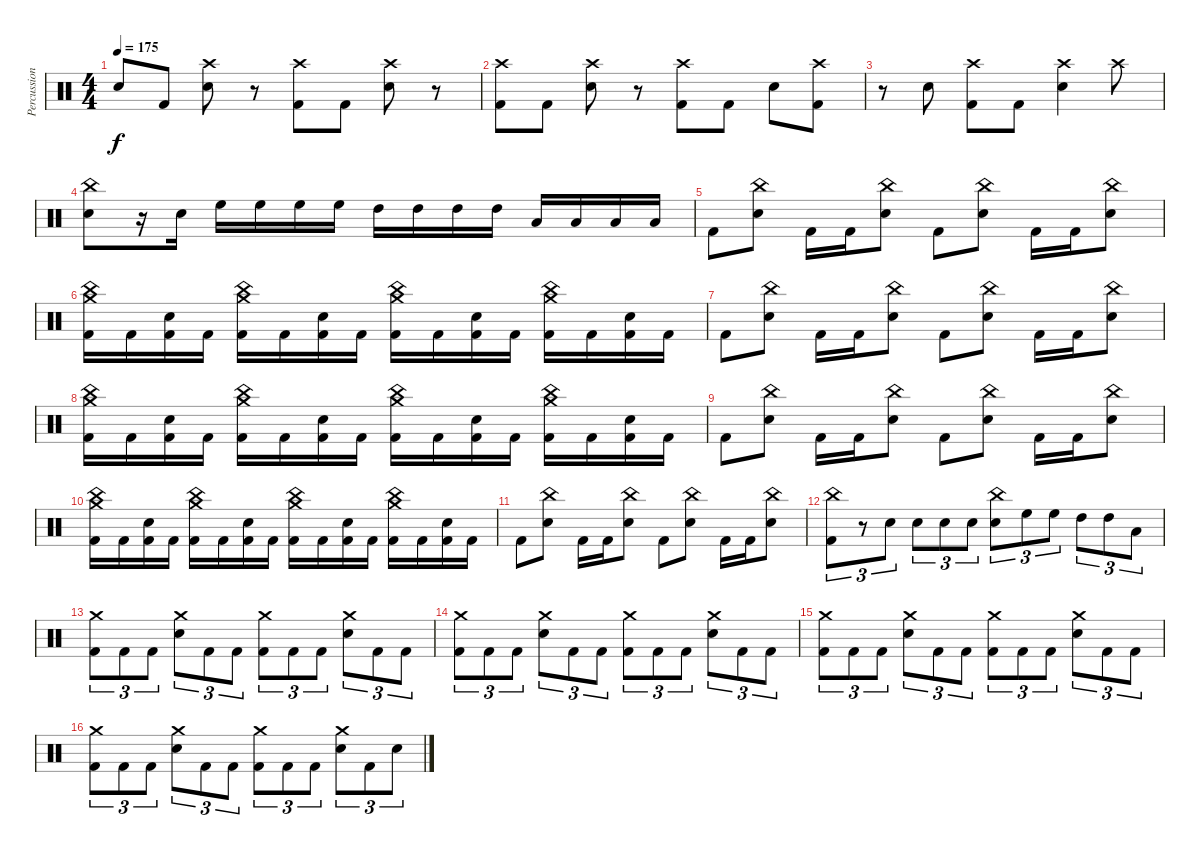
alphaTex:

\track ("Percussion" "Percussion") {instrument percussion}
\staff {score}
\articulation defaults
\ts (4 4)
\tempo 175
\clef neutral
\ks c "Snare (hit)"{t}.8{dy f} "Kick (hit) 2".8
("Crash high (hit)" "Electric Snare (hit)").8 r.8 ("Crash high (hit)" "Kick (hit) 2").8 "Kick (hit) 2".8 ("Crash high (hit)" "Electric Snare (hit)").8 r.8 |
("Crash high (hit)" "Kick (hit) 2").8 "Kick (hit) 2".8 ("Crash high (hit)" "Electric Snare (hit)").8 r.8 ("Crash high (hit)" "Kick (hit) 2").8 "Kick (hit) 2".8 "Electric Snare (hit)".8 ("Crash high (hit)" "Kick (hit) 2").8 |
r.8 "Electric Snare (hit)".8 ("Crash high (hit)" "Kick (hit) 2").8 "Kick (hit) 2".8 ("Crash high (hit)" "Electric Snare (hit)").4 "Crash high (hit)".8 |
("China (hit)" "Electric Snare (hit)").8 r.16 "Electric Snare (hit)".16 "High Floor Tom (hit)".16 "High Floor Tom (hit)".16 "High Floor Tom (hit)".16 "High Floor Tom (hit)".16 "High Tom (hit)".16 "High Tom (hit)".16 "High Tom (hit)".16 "High Tom (hit)".16 "Low Floor Tom (hit)".16 "Low Floor Tom (hit)".16 "Low Floor Tom (hit)".16 "Low Floor Tom (hit)".16 |
"Kick (hit) 2".8 ("China (hit)" "Electric Snare (hit)").8 "Kick (hit) 2".16 "Kick (hit) 2".16 ("China (hit)" "Electric Snare (hit)").8 "Kick (hit) 2".8 ("China (hit)" "Electric Snare (hit)").8 "Kick (hit) 2".16 "Kick (hit) 2".16 ("China (hit)" "Electric Snare (hit)").8 |
("Crash medium (hit)" "China (hit)" "Kick (hit) 2").16 "Kick (hit) 2".16 ("Electric Snare (hit)" "Kick (hit) 2").16 "Kick (hit) 2".16 ("Crash medium (hit)" "China (hit)" "Kick (hit) 2").16 "Kick (hit) 2".16 ("Electric Snare (hit)" "Kick (hit) 2").16 "Kick (hit) 2".16 ("Crash medium (hit)" "China (hit)" "Kick (hit) 2").16 "Kick (hit) 2".16 ("Electric Snare (hit)" "Kick (hit) 2").16 "Kick (hit) 2".16 ("Crash medium (hit)" "China (hit)" "Kick (hit) 2").16 "Kick (hit) 2".16 ("Electric Snare (hit)" "Kick (hit) 2").16 "Kick (hit) 2".16 |
"Kick (hit) 2".8 ("China (hit)" "Electric Snare (hit)").8 "Kick (hit) 2".16 "Kick (hit) 2".16 ("China (hit)" "Electric Snare (hit)").8 "Kick (hit) 2".8 ("China (hit)" "Electric Snare (hit)").8 "Kick (hit) 2".16 "Kick (hit) 2".16 ("China (hit)" "Electric Snare (hit)").8 |
("Crash medium (hit)" "China (hit)" "Kick (hit) 2").16 "Kick (hit) 2".16 ("Electric Snare (hit)" "Kick (hit) 2").16 "Kick (hit) 2".16 ("Crash medium (hit)" "China (hit)" "Kick (hit) 2").16 "Kick (hit) 2".16 ("Electric Snare (hit)" "Kick (hit) 2").16 "Kick (hit) 2".16 ("Crash medium (hit)" "China (hit)" "Kick (hit) 2").16 "Kick (hit) 2".16 ("Electric Snare (hit)" "Kick (hit) 2").16 "Kick (hit) 2".16 ("Crash medium (hit)" "China (hit)" "Kick (hit) 2").16 "Kick (hit) 2".16 ("Electric Snare (hit)" "Kick (hit) 2").16 "Kick (hit) 2".16 |
"Kick (hit) 2".8 ("China (hit)" "Electric Snare (hit)").8 "Kick (hit) 2".16 "Kick (hit) 2".16 ("China (hit)" "Electric Snare (hit)").8 "Kick (hit) 2".8 ("China (hit)" "Electric Snare (hit)").8 "Kick (hit) 2".16 "Kick (hit) 2".16 ("China (hit)" "Electric Snare (hit)").8 |
("Crash medium (hit)" "China (hit)" "Kick (hit) 2").16 "Kick (hit) 2".16 ("Electric Snare (hit)" "Kick (hit) 2").16 "Kick (hit) 2".16 ("Crash medium (hit)" "China (hit)" "Kick (hit) 2").16 "Kick (hit) 2".16 ("Electric Snare (hit)" "Kick (hit) 2").16 "Kick (hit) 2".16 ("Crash medium (hit)" "China (hit)" "Kick (hit) 2").16 "Kick (hit) 2".16 ("Electric Snare (hit)" "Kick (hit) 2").16 "Kick (hit) 2".16 ("Crash medium (hit)" "China (hit)" "Kick (hit) 2").16 "Kick (hit) 2".16 ("Electric Snare (hit)" "Kick (hit) 2").16 "Kick (hit) 2".16 |
"Kick (hit) 2".8 ("China (hit)" "Electric Snare (hit)").8 "Kick (hit) 2".16 "Kick (hit) 2".16 ("China (hit)" "Electric Snare (hit)").8 "Kick (hit) 2".8 ("China (hit)" "Electric Snare (hit)").8 "Kick (hit) 2".16 "Kick (hit) 2".16 ("China (hit)" "Electric Snare (hit)").8 |
("China (hit)" "Kick (hit) 2").8{tu (3 2)} r.8{tu (3 2)} "Electric Snare (hit)".8{tu (3 2)} "Electric Snare (hit)".8{tu (3 2)} "Electric Snare (hit)".8{tu (3 2)} "Electric Snare (hit)".8{tu (3 2)} ("China (hit)" "Electric Snare (hit)").8{tu (3 2)} "High Floor Tom (hit)".8{tu (3 2)} "High Floor Tom (hit)".8{tu (3 2)} "High Tom (hit)".8{tu (3 2)} "High Tom (hit)".8{tu (3 2)} "Low Floor Tom (hit)".8{tu (3 2)} |
("Crash medium (hit)" "Kick (hit) 2").8{tu (3 2)} "Kick (hit) 2".8{tu (3 2)} "Kick (hit) 2".8{tu (3 2)} ("Crash medium (hit)" "Electric Snare (hit)").8{tu (3 2)} "Kick (hit) 2".8{tu (3 2)} "Kick (hit) 2".8{tu (3 2)} ("Crash medium (hit)" "Kick (hit) 2").8{tu (3 2)} "Kick (hit) 2".8{tu (3 2)} "Kick (hit) 2".8{tu (3 2)} ("Crash medium (hit)" "Electric Snare (hit)").8{tu (3 2)} "Kick (hit) 2".8{tu (3 2)} "Kick (hit) 2".8{tu (3 2)} |
("Crash medium (hit)" "Kick (hit) 2").8{tu (3 2)} "Kick (hit) 2".8{tu (3 2)} "Kick (hit) 2".8{tu (3 2)} ("Crash medium (hit)" "Electric Snare (hit)").8{tu (3 2)} "Kick (hit) 2".8{tu (3 2)} "Kick (hit) 2".8{tu (3 2)} ("Crash medium (hit)" "Kick (hit) 2").8{tu (3 2)} "Kick (hit) 2".8{tu (3 2)} "Kick (hit) 2".8{tu (3 2)} ("Crash medium (hit)" "Electric Snare (hit)").8{tu (3 2)} "Kick (hit) 2".8{tu (3 2)} "Kick (hit) 2".8{tu (3 2)} |
("Crash medium (hit)" "Kick (hit) 2").8{tu (3 2)} "Kick (hit) 2".8{tu (3 2)} "Kick (hit) 2".8{tu (3 2)} ("Crash medium (hit)" "Electric Snare (hit)").8{tu (3 2)} "Kick (hit) 2".8{tu (3 2)} "Kick (hit) 2".8{tu (3 2)} ("Crash medium (hit)" "Kick (hit) 2").8{tu (3 2)} "Kick (hit) 2".8{tu (3 2)} "Kick (hit) 2".8{tu (3 2)} ("Crash medium (hit)" "Electric Snare (hit)").8{tu (3 2)} "Kick (hit) 2".8{tu (3 2)} "Kick (hit) 2".8{tu (3 2)} |
("Crash medium (hit)" "Kick (hit) 2").8{tu (3 2)} "Kick (hit) 2".8{tu (3 2)} "Kick (hit) 2".8{tu (3 2)} ("Crash medium (hit)" "Electric Snare (hit)").8{tu (3 2)} "Kick (hit) 2".8{tu (3 2)} "Kick (hit) 2".8{tu (3 2)} ("Crash medium (hit)" "Kick (hit) 2").8{tu (3 2)} "Kick (hit) 2".8{tu (3 2)} "Kick (hit) 2".8{tu (3 2)} ("Crash medium (hit)" "Electric Snare (hit)").8{tu (3 2)} "Kick (hit) 2".8{tu (3 2)} "Electric Snare (hit)".8{tu (3 2)}
